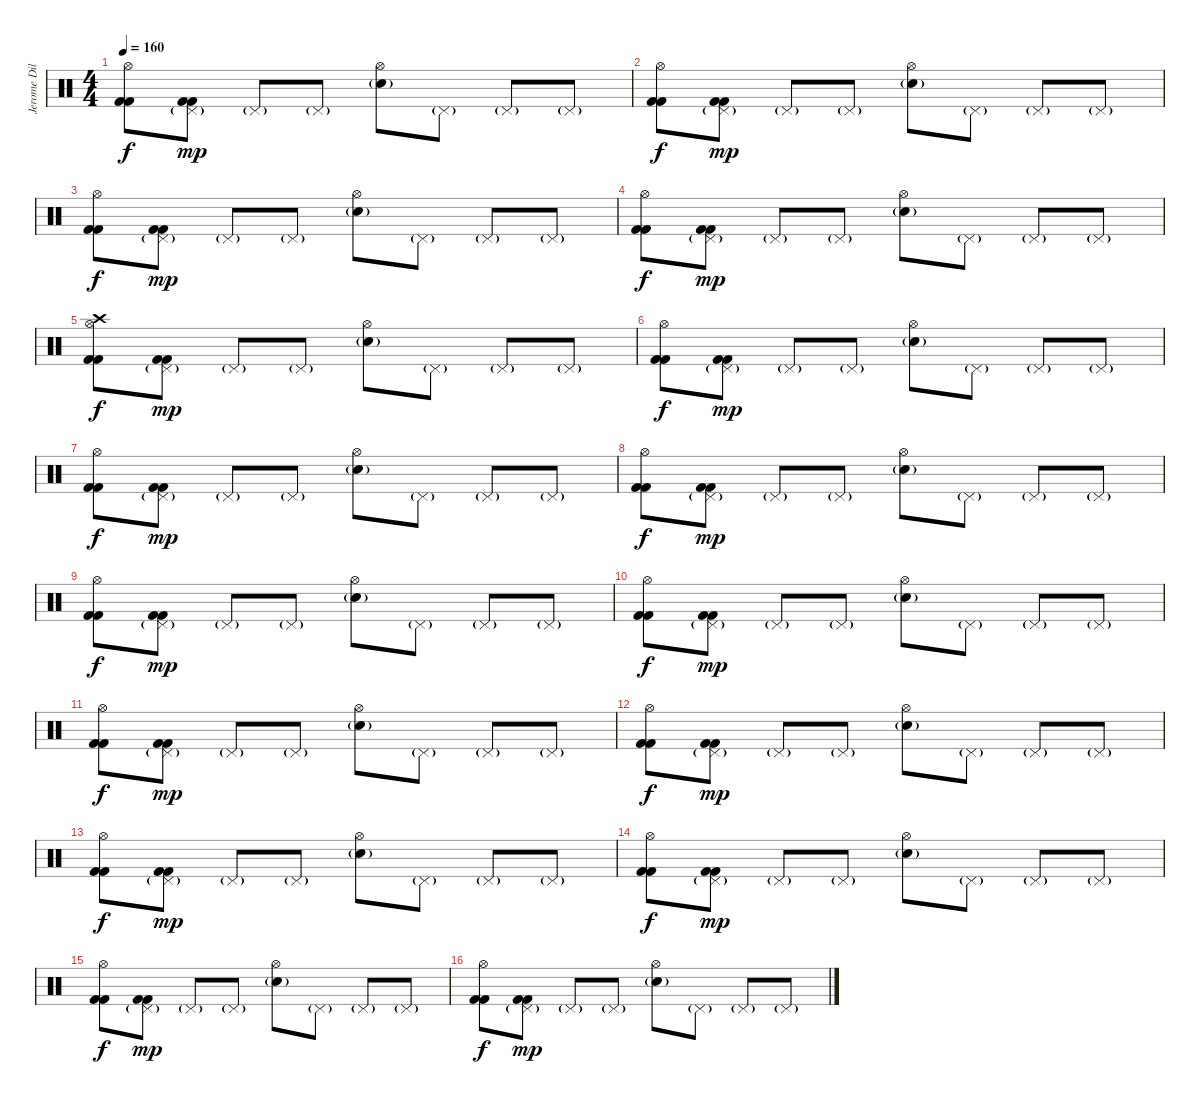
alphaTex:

\track ("Jerome Dillon" "Jerome Dil") {instrument percussion}
\staff {score}
\articulation defaults
\ts (4 4)
\tempo 160
\clef neutral
\ks c
("Hi-Hat (open)" "Kick (hit) 2" "Kick (hit) 2").8{dy f} ("Pedal Hi-Hat (hit)"{g} "Kick (hit) 2" "Kick (hit) 2").8{dy mp} "Pedal Hi-Hat (hit)"{g}.8 "Pedal Hi-Hat (hit)"{g}.8 ("Hi-Hat (open)" "Electric Snare (hit)"{g}).8 "Pedal Hi-Hat (hit)"{g}.8 "Pedal Hi-Hat (hit)"{g}.8 "Pedal Hi-Hat (hit)"{g}.8 |
("Hi-Hat (open)" "Kick (hit) 2" "Kick (hit) 2").8{dy f} ("Pedal Hi-Hat (hit)"{g} "Kick (hit) 2" "Kick (hit) 2").8{dy mp} "Pedal Hi-Hat (hit)"{g}.8 "Pedal Hi-Hat (hit)"{g}.8 ("Hi-Hat (open)" "Electric Snare (hit)"{g}).8 "Pedal Hi-Hat (hit)"{g}.8 "Pedal Hi-Hat (hit)"{g}.8 "Pedal Hi-Hat (hit)"{g}.8 |
("Hi-Hat (open)" "Kick (hit) 2" "Kick (hit) 2").8{dy f} ("Pedal Hi-Hat (hit)"{g} "Kick (hit) 2" "Kick (hit) 2").8{dy mp} "Pedal Hi-Hat (hit)"{g}.8 "Pedal Hi-Hat (hit)"{g}.8 ("Hi-Hat (open)" "Electric Snare (hit)"{g}).8 "Pedal Hi-Hat (hit)"{g}.8 "Pedal Hi-Hat (hit)"{g}.8 "Pedal Hi-Hat (hit)"{g}.8 |
("Hi-Hat (open)" "Kick (hit) 2" "Kick (hit) 2").8{dy f} ("Pedal Hi-Hat (hit)"{g} "Kick (hit) 2" "Kick (hit) 2").8{dy mp} "Pedal Hi-Hat (hit)"{g}.8 "Pedal Hi-Hat (hit)"{g}.8 ("Hi-Hat (open)" "Electric Snare (hit)"{g}).8 "Pedal Hi-Hat (hit)"{g}.8 "Pedal Hi-Hat (hit)"{g}.8 "Pedal Hi-Hat (hit)"{g}.8 |
("Hi-Hat (open)" "Crash high (hit)" "Kick (hit) 2" "Kick (hit) 2").8{dy f} ("Pedal Hi-Hat (hit)"{g} "Kick (hit) 2" "Kick (hit) 2").8{dy mp} "Pedal Hi-Hat (hit)"{g}.8 "Pedal Hi-Hat (hit)"{g}.8 ("Hi-Hat (open)" "Electric Snare (hit)"{g}).8 "Pedal Hi-Hat (hit)"{g}.8 "Pedal Hi-Hat (hit)"{g}.8 "Pedal Hi-Hat (hit)"{g}.8 |
("Hi-Hat (open)" "Kick (hit) 2" "Kick (hit) 2").8{dy f} ("Pedal Hi-Hat (hit)"{g} "Kick (hit) 2" "Kick (hit) 2").8{dy mp} "Pedal Hi-Hat (hit)"{g}.8 "Pedal Hi-Hat (hit)"{g}.8 ("Hi-Hat (open)" "Electric Snare (hit)"{g}).8 "Pedal Hi-Hat (hit)"{g}.8 "Pedal Hi-Hat (hit)"{g}.8 "Pedal Hi-Hat (hit)"{g}.8 |
("Hi-Hat (open)" "Kick (hit) 2" "Kick (hit) 2").8{dy f} ("Pedal Hi-Hat (hit)"{g} "Kick (hit) 2" "Kick (hit) 2").8{dy mp} "Pedal Hi-Hat (hit)"{g}.8 "Pedal Hi-Hat (hit)"{g}.8 ("Hi-Hat (open)" "Electric Snare (hit)"{g}).8 "Pedal Hi-Hat (hit)"{g}.8 "Pedal Hi-Hat (hit)"{g}.8 "Pedal Hi-Hat (hit)"{g}.8 |
("Hi-Hat (open)" "Kick (hit) 2" "Kick (hit) 2").8{dy f} ("Pedal Hi-Hat (hit)"{g} "Kick (hit) 2" "Kick (hit) 2").8{dy mp} "Pedal Hi-Hat (hit)"{g}.8 "Pedal Hi-Hat (hit)"{g}.8 ("Hi-Hat (open)" "Electric Snare (hit)"{g}).8 "Pedal Hi-Hat (hit)"{g}.8 "Pedal Hi-Hat (hit)"{g}.8 "Pedal Hi-Hat (hit)"{g}.8 |
("Hi-Hat (open)" "Kick (hit) 2" "Kick (hit) 2").8{dy f} ("Pedal Hi-Hat (hit)"{g} "Kick (hit) 2" "Kick (hit) 2").8{dy mp} "Pedal Hi-Hat (hit)"{g}.8 "Pedal Hi-Hat (hit)"{g}.8 ("Hi-Hat (open)" "Electric Snare (hit)"{g}).8 "Pedal Hi-Hat (hit)"{g}.8 "Pedal Hi-Hat (hit)"{g}.8 "Pedal Hi-Hat (hit)"{g}.8 |
("Hi-Hat (open)" "Kick (hit) 2" "Kick (hit) 2").8{dy f} ("Pedal Hi-Hat (hit)"{g} "Kick (hit) 2" "Kick (hit) 2").8{dy mp} "Pedal Hi-Hat (hit)"{g}.8 "Pedal Hi-Hat (hit)"{g}.8 ("Hi-Hat (open)" "Electric Snare (hit)"{g}).8 "Pedal Hi-Hat (hit)"{g}.8 "Pedal Hi-Hat (hit)"{g}.8 "Pedal Hi-Hat (hit)"{g}.8 |
("Hi-Hat (open)" "Kick (hit) 2" "Kick (hit) 2").8{dy f} ("Pedal Hi-Hat (hit)"{g} "Kick (hit) 2" "Kick (hit) 2").8{dy mp} "Pedal Hi-Hat (hit)"{g}.8 "Pedal Hi-Hat (hit)"{g}.8 ("Hi-Hat (open)" "Electric Snare (hit)"{g}).8 "Pedal Hi-Hat (hit)"{g}.8 "Pedal Hi-Hat (hit)"{g}.8 "Pedal Hi-Hat (hit)"{g}.8 |
("Hi-Hat (open)" "Kick (hit) 2" "Kick (hit) 2").8{dy f} ("Pedal Hi-Hat (hit)"{g} "Kick (hit) 2" "Kick (hit) 2").8{dy mp} "Pedal Hi-Hat (hit)"{g}.8 "Pedal Hi-Hat (hit)"{g}.8 ("Hi-Hat (open)" "Electric Snare (hit)"{g}).8 "Pedal Hi-Hat (hit)"{g}.8 "Pedal Hi-Hat (hit)"{g}.8 "Pedal Hi-Hat (hit)"{g}.8 |
("Hi-Hat (open)" "Kick (hit) 2" "Kick (hit) 2").8{dy f} ("Pedal Hi-Hat (hit)"{g} "Kick (hit) 2" "Kick (hit) 2").8{dy mp} "Pedal Hi-Hat (hit)"{g}.8 "Pedal Hi-Hat (hit)"{g}.8 ("Hi-Hat (open)" "Electric Snare (hit)"{g}).8 "Pedal Hi-Hat (hit)"{g}.8 "Pedal Hi-Hat (hit)"{g}.8 "Pedal Hi-Hat (hit)"{g}.8 |
("Hi-Hat (open)" "Kick (hit) 2" "Kick (hit) 2").8{dy f} ("Pedal Hi-Hat (hit)"{g} "Kick (hit) 2" "Kick (hit) 2").8{dy mp} "Pedal Hi-Hat (hit)"{g}.8 "Pedal Hi-Hat (hit)"{g}.8 ("Hi-Hat (open)" "Electric Snare (hit)"{g}).8 "Pedal Hi-Hat (hit)"{g}.8 "Pedal Hi-Hat (hit)"{g}.8 "Pedal Hi-Hat (hit)"{g}.8 |
("Hi-Hat (open)" "Kick (hit) 2" "Kick (hit) 2").8{dy f} ("Pedal Hi-Hat (hit)"{g} "Kick (hit) 2" "Kick (hit) 2").8{dy mp} "Pedal Hi-Hat (hit)"{g}.8 "Pedal Hi-Hat (hit)"{g}.8 ("Hi-Hat (open)" "Electric Snare (hit)"{g}).8 "Pedal Hi-Hat (hit)"{g}.8 "Pedal Hi-Hat (hit)"{g}.8 "Pedal Hi-Hat (hit)"{g}.8 |
("Hi-Hat (open)" "Kick (hit) 2" "Kick (hit) 2").8{dy f} ("Pedal Hi-Hat (hit)"{g} "Kick (hit) 2" "Kick (hit) 2").8{dy mp} "Pedal Hi-Hat (hit)"{g}.8 "Pedal Hi-Hat (hit)"{g}.8 ("Hi-Hat (open)" "Electric Snare (hit)"{g}).8 "Pedal Hi-Hat (hit)"{g}.8 "Pedal Hi-Hat (hit)"{g}.8 "Pedal Hi-Hat (hit)"{g}.8
